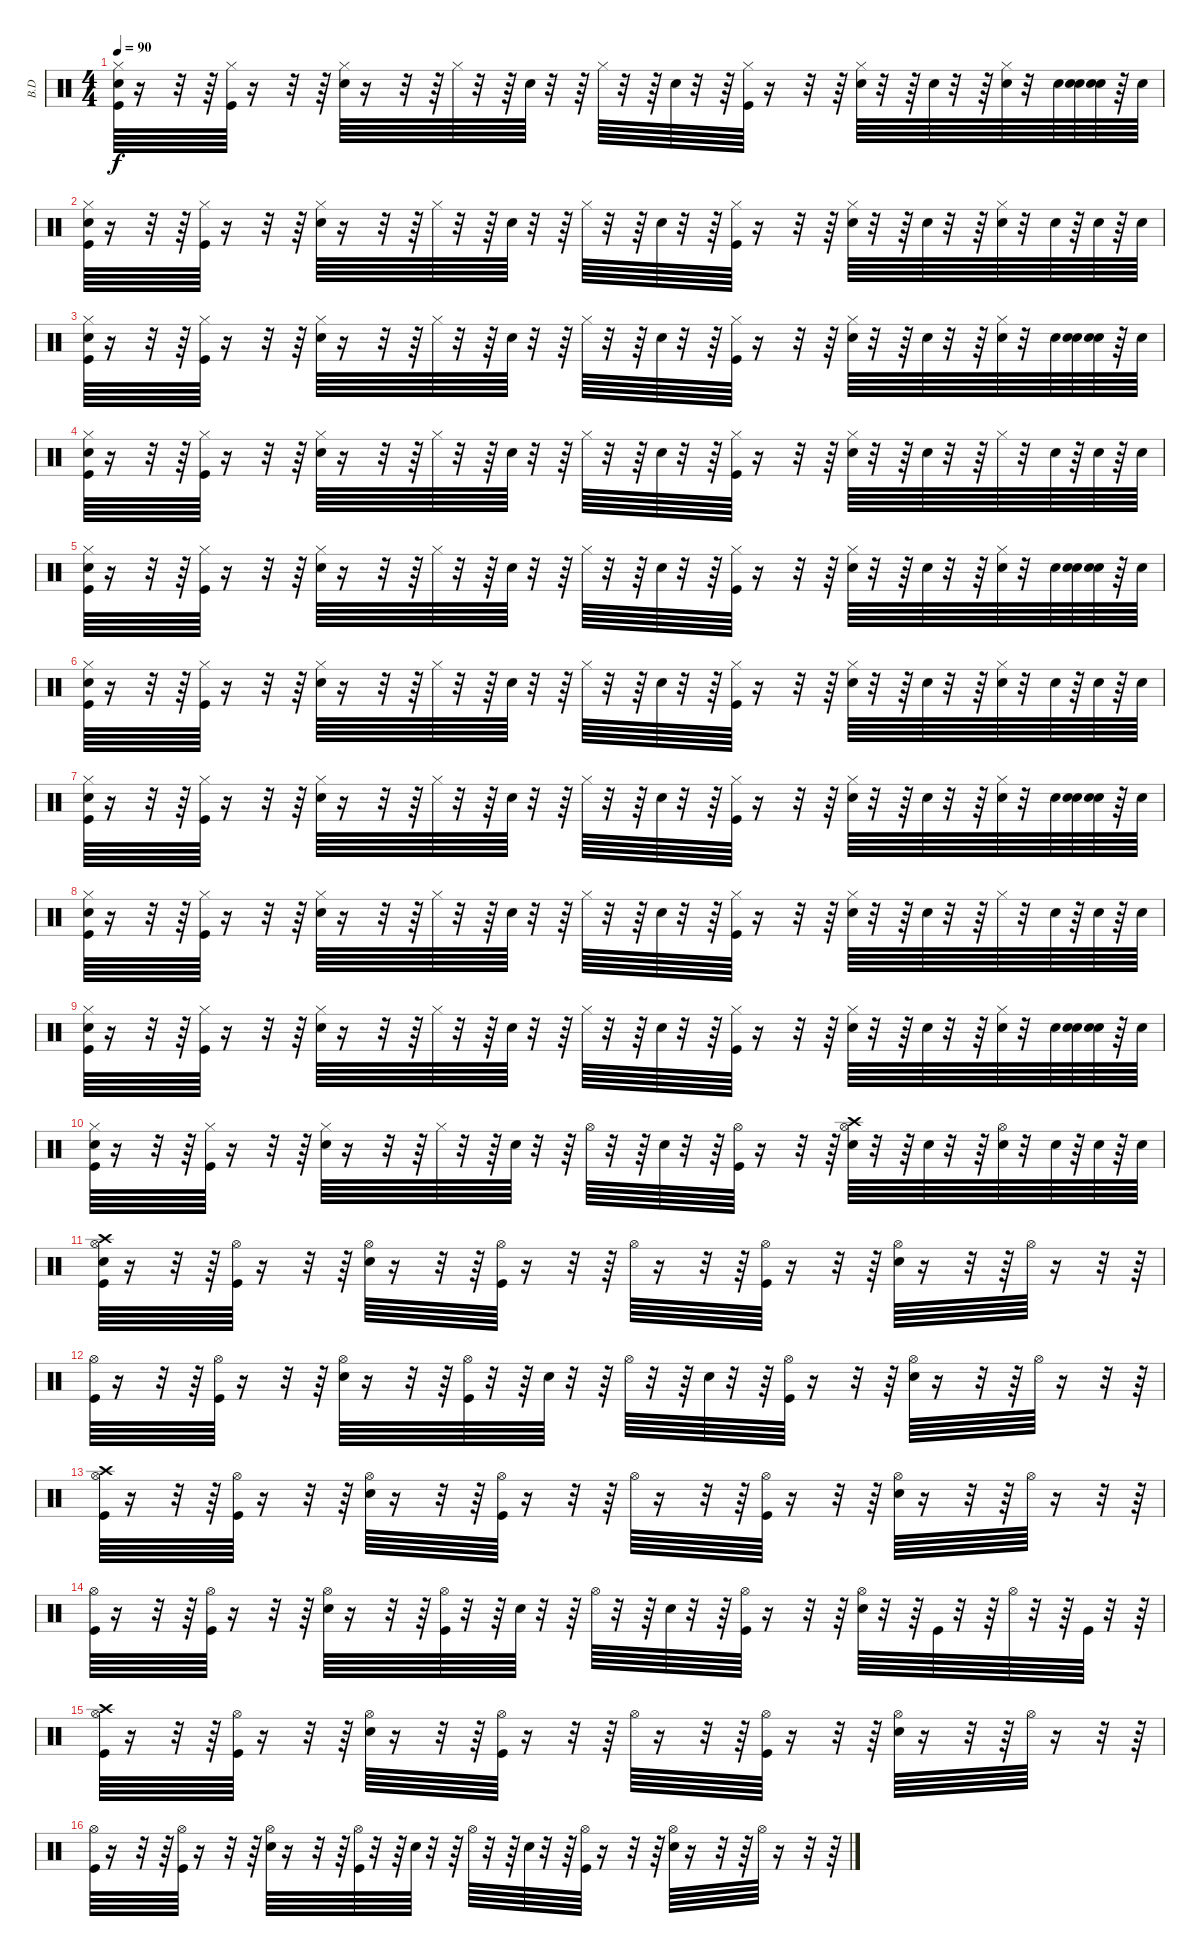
\track ("B.D" "B.D") {instrument percussion}
\staff {score}
\articulation defaults
\ts (4 4)
\tempo 90
\clef neutral
\ks c
("Snare (hit)" "Kick (hit)" "Hi-Hat (closed)").64{dy f} r.16 r.32 r.64 ("Kick (hit)" "Hi-Hat (closed)").64 r.16 r.32 r.64 ("Electric Snare (hit)" "Hi-Hat (closed)").64 r.16 r.32 r.64 "Hi-Hat (closed)".64 r.32 r.64 "Electric Snare (hit)".64 r.32 r.64 "Hi-Hat (closed)".64 r.32 r.64 "Electric Snare (hit)".64 r.32 r.64 ("Kick (hit)" "Hi-Hat (closed)").64 r.16 r.32 r.64 ("Electric Snare (hit)" "Hi-Hat (closed)").64 r.32 r.64 "Electric Snare (hit)".64 r.32 r.64 ("Electric Snare (hit)" "Hi-Hat (closed)").64 r.32 "Electric Snare (hit)".64 ("Snare (hit)" "Electric Snare (hit)").64 ("Snare (hit)" "Electric Snare (hit)").64 r.64 "Electric Snare (hit)".64 |
("Snare (hit)" "Kick (hit)" "Hi-Hat (closed)").64 r.16 r.32 r.64 ("Kick (hit)" "Hi-Hat (closed)").64 r.16 r.32 r.64 ("Electric Snare (hit)" "Hi-Hat (closed)").64 r.16 r.32 r.64 "Hi-Hat (closed)".64 r.32 r.64 "Electric Snare (hit)".64 r.32 r.64 "Hi-Hat (closed)".64 r.32 r.64 "Electric Snare (hit)".64 r.32 r.64 ("Kick (hit)" "Hi-Hat (closed)").64 r.16 r.32 r.64 ("Electric Snare (hit)" "Hi-Hat (closed)").64 r.32 r.64 "Electric Snare (hit)".64 r.32 r.64 ("Electric Snare (hit)" "Hi-Hat (closed)").64 r.32 "Electric Snare (hit)".64 r.64 "Electric Snare (hit)".64 r.64 "Electric Snare (hit)".64 |
("Snare (hit)" "Kick (hit)" "Hi-Hat (closed)").64 r.16 r.32 r.64 ("Kick (hit)" "Hi-Hat (closed)").64 r.16 r.32 r.64 ("Electric Snare (hit)" "Hi-Hat (closed)").64 r.16 r.32 r.64 "Hi-Hat (closed)".64 r.32 r.64 "Electric Snare (hit)".64 r.32 r.64 "Hi-Hat (closed)".64 r.32 r.64 "Electric Snare (hit)".64 r.32 r.64 ("Kick (hit)" "Hi-Hat (closed)").64 r.16 r.32 r.64 ("Electric Snare (hit)" "Hi-Hat (closed)").64 r.32 r.64 "Electric Snare (hit)".64 r.32 r.64 ("Electric Snare (hit)" "Hi-Hat (closed)").64 r.32 "Electric Snare (hit)".64 ("Snare (hit)" "Electric Snare (hit)").64 ("Snare (hit)" "Electric Snare (hit)").64 r.64 "Electric Snare (hit)".64 |
("Snare (hit)" "Kick (hit)" "Hi-Hat (closed)").64 r.16 r.32 r.64 ("Kick (hit)" "Hi-Hat (closed)").64 r.16 r.32 r.64 ("Electric Snare (hit)" "Hi-Hat (closed)").64 r.16 r.32 r.64 "Hi-Hat (closed)".64 r.32 r.64 "Electric Snare (hit)".64 r.32 r.64 "Hi-Hat (closed)".64 r.32 r.64 "Electric Snare (hit)".64 r.32 r.64 ("Kick (hit)" "Hi-Hat (closed)").64 r.16 r.32 r.64 ("Electric Snare (hit)" "Hi-Hat (closed)").64 r.32 r.64 "Electric Snare (hit)".64 r.32 r.64 "Hi-Hat (closed)".64 r.32 "Electric Snare (hit)".64 r.64 "Electric Snare (hit)".64 r.64 "Electric Snare (hit)".64 |
("Snare (hit)" "Kick (hit)" "Hi-Hat (closed)").64 r.16 r.32 r.64 ("Kick (hit)" "Hi-Hat (closed)").64 r.16 r.32 r.64 ("Electric Snare (hit)" "Hi-Hat (closed)").64 r.16 r.32 r.64 "Hi-Hat (closed)".64 r.32 r.64 "Electric Snare (hit)".64 r.32 r.64 "Hi-Hat (closed)".64 r.32 r.64 "Electric Snare (hit)".64 r.32 r.64 ("Kick (hit)" "Hi-Hat (closed)").64 r.16 r.32 r.64 ("Electric Snare (hit)" "Hi-Hat (closed)").64 r.32 r.64 "Electric Snare (hit)".64 r.32 r.64 ("Electric Snare (hit)" "Hi-Hat (closed)").64 r.32 "Electric Snare (hit)".64 ("Snare (hit)" "Electric Snare (hit)").64 ("Snare (hit)" "Electric Snare (hit)").64 r.64 "Electric Snare (hit)".64 |
("Snare (hit)" "Kick (hit)" "Hi-Hat (closed)").64 r.16 r.32 r.64 ("Kick (hit)" "Hi-Hat (closed)").64 r.16 r.32 r.64 ("Electric Snare (hit)" "Hi-Hat (closed)").64 r.16 r.32 r.64 "Hi-Hat (closed)".64 r.32 r.64 "Electric Snare (hit)".64 r.32 r.64 "Hi-Hat (closed)".64 r.32 r.64 "Electric Snare (hit)".64 r.32 r.64 ("Kick (hit)" "Hi-Hat (closed)").64 r.16 r.32 r.64 ("Electric Snare (hit)" "Hi-Hat (closed)").64 r.32 r.64 "Electric Snare (hit)".64 r.32 r.64 ("Electric Snare (hit)" "Hi-Hat (closed)").64 r.32 "Electric Snare (hit)".64 r.64 "Electric Snare (hit)".64 r.64 "Electric Snare (hit)".64 |
("Snare (hit)" "Kick (hit)" "Hi-Hat (closed)").64 r.16 r.32 r.64 ("Kick (hit)" "Hi-Hat (closed)").64 r.16 r.32 r.64 ("Electric Snare (hit)" "Hi-Hat (closed)").64 r.16 r.32 r.64 "Hi-Hat (closed)".64 r.32 r.64 "Electric Snare (hit)".64 r.32 r.64 "Hi-Hat (closed)".64 r.32 r.64 "Electric Snare (hit)".64 r.32 r.64 ("Kick (hit)" "Hi-Hat (closed)").64 r.16 r.32 r.64 ("Electric Snare (hit)" "Hi-Hat (closed)").64 r.32 r.64 "Electric Snare (hit)".64 r.32 r.64 ("Electric Snare (hit)" "Hi-Hat (closed)").64 r.32 "Electric Snare (hit)".64 ("Snare (hit)" "Electric Snare (hit)").64 ("Snare (hit)" "Electric Snare (hit)").64 r.64 "Electric Snare (hit)".64 |
("Snare (hit)" "Kick (hit)" "Hi-Hat (closed)").64 r.16 r.32 r.64 ("Kick (hit)" "Hi-Hat (closed)").64 r.16 r.32 r.64 ("Electric Snare (hit)" "Hi-Hat (closed)").64 r.16 r.32 r.64 "Hi-Hat (closed)".64 r.32 r.64 "Electric Snare (hit)".64 r.32 r.64 "Hi-Hat (closed)".64 r.32 r.64 "Electric Snare (hit)".64 r.32 r.64 ("Kick (hit)" "Hi-Hat (closed)").64 r.16 r.32 r.64 ("Electric Snare (hit)" "Hi-Hat (closed)").64 r.32 r.64 "Electric Snare (hit)".64 r.32 r.64 "Hi-Hat (closed)".64 r.32 "Electric Snare (hit)".64 r.64 "Electric Snare (hit)".64 r.64 "Electric Snare (hit)".64 |
("Snare (hit)" "Kick (hit)" "Hi-Hat (closed)").64 r.16 r.32 r.64 ("Kick (hit)" "Hi-Hat (closed)").64 r.16 r.32 r.64 ("Electric Snare (hit)" "Hi-Hat (closed)").64 r.16 r.32 r.64 "Hi-Hat (closed)".64 r.32 r.64 "Electric Snare (hit)".64 r.32 r.64 "Hi-Hat (closed)".64 r.32 r.64 "Electric Snare (hit)".64 r.32 r.64 ("Kick (hit)" "Hi-Hat (closed)").64 r.16 r.32 r.64 ("Electric Snare (hit)" "Hi-Hat (closed)").64 r.32 r.64 "Electric Snare (hit)".64 r.32 r.64 ("Electric Snare (hit)" "Hi-Hat (closed)").64 r.32 "Electric Snare (hit)".64 ("Snare (hit)" "Electric Snare (hit)").64 ("Snare (hit)" "Electric Snare (hit)").64 r.64 "Electric Snare (hit)".64 |
("Snare (hit)" "Kick (hit)" "Hi-Hat (closed)").64 r.16 r.32 r.64 ("Kick (hit)" "Hi-Hat (closed)").64 r.16 r.32 r.64 ("Electric Snare (hit)" "Hi-Hat (closed)").64 r.16 r.32 r.64 "Hi-Hat (closed)".64 r.32 r.64 "Electric Snare (hit)".64 r.32 r.64 "Hi-Hat (open)".64 r.32 r.64 "Electric Snare (hit)".64 r.32 r.64 ("Kick (hit)" "Hi-Hat (open)").64 r.16 r.32 r.64 ("Electric Snare (hit)" "Hi-Hat (open)" "Crash high (hit)").64 r.32 r.64 "Electric Snare (hit)".64 r.32 r.64 ("Electric Snare (hit)" "Hi-Hat (open)").64 r.32 "Electric Snare (hit)".64 r.64 "Electric Snare (hit)".64 r.64 "Electric Snare (hit)".64 |
("Snare (hit)" "Kick (hit)" "Hi-Hat (open)" "Crash high (hit)").64 r.16 r.32 r.64 ("Kick (hit)" "Hi-Hat (open)").64 r.16 r.32 r.64 ("Electric Snare (hit)" "Hi-Hat (open)").64 r.16 r.32 r.64 ("Kick (hit)" "Hi-Hat (open)").64 r.16 r.32 r.64 "Hi-Hat (open)".64 r.16 r.32 r.64 ("Kick (hit)" "Hi-Hat (open)").64 r.16 r.32 r.64 ("Electric Snare (hit)" "Hi-Hat (open)").64 r.16 r.32 r.64 "Hi-Hat (open)".64 r.16 r.32 r.64 |
("Kick (hit)" "Hi-Hat (open)").64 r.16 r.32 r.64 ("Kick (hit)" "Hi-Hat (open)").64 r.16 r.32 r.64 ("Electric Snare (hit)" "Hi-Hat (open)").64 r.16 r.32 r.64 ("Kick (hit)" "Hi-Hat (open)").64 r.32 r.64 "Electric Snare (hit)".64 r.32 r.64 "Hi-Hat (open)".64 r.32 r.64 "Electric Snare (hit)".64 r.32 r.64 ("Kick (hit)" "Hi-Hat (open)").64 r.16 r.32 r.64 ("Electric Snare (hit)" "Hi-Hat (open)").64 r.16 r.32 r.64 "Hi-Hat (open)".64 r.16 r.32 r.64 |
("Kick (hit)" "Hi-Hat (open)" "Crash high (hit)").64 r.16 r.32 r.64 ("Kick (hit)" "Hi-Hat (open)").64 r.16 r.32 r.64 ("Electric Snare (hit)" "Hi-Hat (open)").64 r.16 r.32 r.64 ("Kick (hit)" "Hi-Hat (open)").64 r.16 r.32 r.64 "Hi-Hat (open)".64 r.16 r.32 r.64 ("Kick (hit)" "Hi-Hat (open)").64 r.16 r.32 r.64 ("Electric Snare (hit)" "Hi-Hat (open)").64 r.16 r.32 r.64 "Hi-Hat (open)".64 r.16 r.32 r.64 |
("Kick (hit)" "Hi-Hat (open)").64 r.16 r.32 r.64 ("Kick (hit)" "Hi-Hat (open)").64 r.16 r.32 r.64 ("Electric Snare (hit)" "Hi-Hat (open)").64 r.16 r.32 r.64 ("Kick (hit)" "Hi-Hat (open)").64 r.32 r.64 "Electric Snare (hit)".64 r.32 r.64 "Hi-Hat (open)".64 r.32 r.64 "Electric Snare (hit)".64 r.32 r.64 ("Kick (hit)" "Hi-Hat (open)").64 r.16 r.32 r.64 ("Electric Snare (hit)" "Hi-Hat (open)").64 r.32 r.64 "Kick (hit)".64 r.32 r.64 "Hi-Hat (open)".64 r.32 r.64 "Kick (hit)".64 r.32 r.64 |
("Kick (hit)" "Hi-Hat (open)" "Crash high (hit)").64 r.16 r.32 r.64 ("Kick (hit)" "Hi-Hat (open)").64 r.16 r.32 r.64 ("Electric Snare (hit)" "Hi-Hat (open)").64 r.16 r.32 r.64 ("Kick (hit)" "Hi-Hat (open)").64 r.16 r.32 r.64 "Hi-Hat (open)".64 r.16 r.32 r.64 ("Kick (hit)" "Hi-Hat (open)").64 r.16 r.32 r.64 ("Electric Snare (hit)" "Hi-Hat (open)").64 r.16 r.32 r.64 "Hi-Hat (open)".64 r.16 r.32 r.64 |
("Kick (hit)" "Hi-Hat (open)").64 r.16 r.32 r.64 ("Kick (hit)" "Hi-Hat (open)").64 r.16 r.32 r.64 ("Electric Snare (hit)" "Hi-Hat (open)").64 r.16 r.32 r.64 ("Kick (hit)" "Hi-Hat (open)").64 r.32 r.64 "Electric Snare (hit)".64 r.32 r.64 "Hi-Hat (open)".64 r.32 r.64 "Electric Snare (hit)".64 r.32 r.64 ("Kick (hit)" "Hi-Hat (open)").64 r.16 r.32 r.64 ("Electric Snare (hit)" "Hi-Hat (open)").64 r.16 r.32 r.64 "Hi-Hat (open)".64 r.16 r.32 r.64
